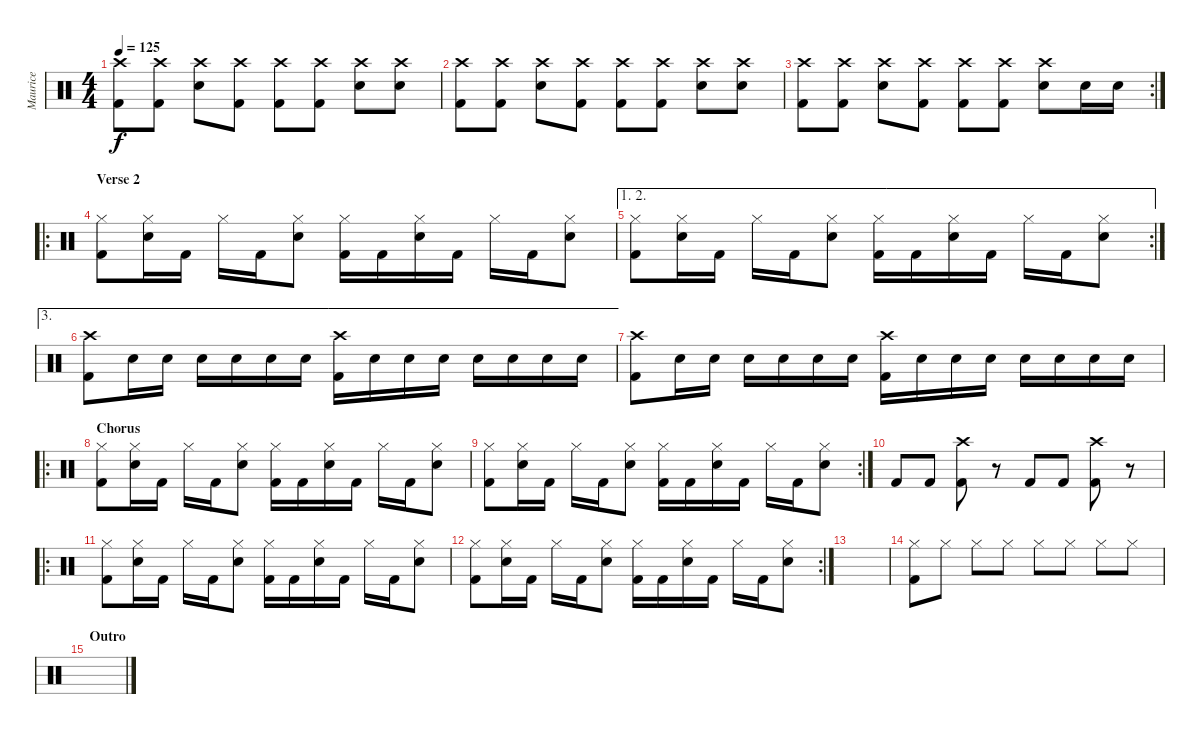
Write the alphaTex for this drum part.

\track ("Maurice" "Maurice") {instrument percussion}
\staff {score}
\articulation defaults
\ts (4 4)
\tempo 125
\clef neutral
\ks c
("Crash high (hit)" "Kick (hit) 2").8{dy f} ("Crash high (hit)" "Kick (hit) 2").8 ("Crash high (hit)" "Snare (hit) 2").8 ("Crash high (hit)" "Kick (hit) 2").8 ("Crash high (hit)" "Kick (hit) 2").8 ("Crash high (hit)" "Kick (hit) 2").8 ("Crash high (hit)" "Snare (hit) 2").8 ("Crash high (hit)" "Snare (hit) 2").8 |
("Crash high (hit)" "Kick (hit) 2").8 ("Crash high (hit)" "Kick (hit) 2").8 ("Crash high (hit)" "Snare (hit) 2").8 ("Crash high (hit)" "Kick (hit) 2").8 ("Crash high (hit)" "Kick (hit) 2").8 ("Crash high (hit)" "Kick (hit) 2").8 ("Crash high (hit)" "Snare (hit) 2").8 ("Crash high (hit)" "Snare (hit) 2").8 |
\rc 2
("Crash high (hit)" "Kick (hit) 2").8 ("Crash high (hit)" "Kick (hit) 2").8 ("Crash high (hit)" "Snare (hit) 2").8 ("Crash high (hit)" "Kick (hit) 2").8 ("Crash high (hit)" "Kick (hit) 2").8 ("Crash high (hit)" "Kick (hit) 2").8 ("Crash high (hit)" "Snare (hit) 2").8 "Snare (hit) 2".16 "Snare (hit) 2".16 |
\ro
\section ("" "Verse 2")
("Hi-Hat (closed)" "Kick (hit) 2").8 ("Hi-Hat (closed)" "Snare (hit) 2").16 "Kick (hit) 2".16 "Hi-Hat (closed)".16 "Kick (hit) 2".16 ("Hi-Hat (closed)" "Snare (hit) 2").8 ("Hi-Hat (closed)" "Kick (hit) 2").16 "Kick (hit) 2".16 ("Hi-Hat (closed)" "Snare (hit) 2").16 "Kick (hit) 2".16 "Hi-Hat (closed)".16 "Kick (hit) 2".16 ("Hi-Hat (closed)" "Snare (hit) 2").8 |
\ae (1 2)
\rc 2
("Hi-Hat (closed)" "Kick (hit) 2").8 ("Hi-Hat (closed)" "Snare (hit) 2").16 "Kick (hit) 2".16 "Hi-Hat (closed)".16 "Kick (hit) 2".16 ("Hi-Hat (closed)" "Snare (hit) 2").8 ("Hi-Hat (closed)" "Kick (hit) 2").16 "Kick (hit) 2".16 ("Hi-Hat (closed)" "Snare (hit) 2").16 "Kick (hit) 2".16 "Hi-Hat (closed)".16 "Kick (hit) 2".16 ("Hi-Hat (closed)" "Snare (hit) 2").8 |
\ae 3
("Crash high (hit)" "Kick (hit) 2").8 "Snare (hit) 2".16 "Snare (hit) 2".16 "Snare (hit) 2".16 "Snare (hit) 2".16 "Snare (hit) 2".16 "Snare (hit) 2".16 ("Crash high (hit)" "Kick (hit) 2").16 "Snare (hit) 2".16 "Snare (hit) 2".16 "Snare (hit) 2".16 "Snare (hit) 2".16 "Snare (hit) 2".16 "Snare (hit) 2".16 "Snare (hit) 2".16 |
("Crash high (hit)" "Kick (hit) 2").8 "Snare (hit) 2".16 "Snare (hit) 2".16 "Snare (hit) 2".16 "Snare (hit) 2".16 "Snare (hit) 2".16 "Snare (hit) 2".16 ("Crash high (hit)" "Kick (hit) 2").16 "Snare (hit) 2".16 "Snare (hit) 2".16 "Snare (hit) 2".16 "Snare (hit) 2".16 "Snare (hit) 2".16 "Snare (hit) 2".16 "Snare (hit) 2".16 |
\ro
\section ("" "Chorus")
("Hi-Hat (closed)" "Kick (hit) 2").8 ("Hi-Hat (closed)" "Snare (hit) 2").16 "Kick (hit) 2".16 "Hi-Hat (closed)".16 "Kick (hit) 2".16 ("Hi-Hat (closed)" "Snare (hit) 2").8 ("Hi-Hat (closed)" "Kick (hit) 2").16 "Kick (hit) 2".16 ("Hi-Hat (closed)" "Snare (hit) 2").16 "Kick (hit) 2".16 "Hi-Hat (closed)".16 "Kick (hit) 2".16 ("Hi-Hat (closed)" "Snare (hit) 2").8 |
\rc 2
("Hi-Hat (closed)" "Kick (hit) 2").8 ("Hi-Hat (closed)" "Snare (hit) 2").16 "Kick (hit) 2".16 "Hi-Hat (closed)".16 "Kick (hit) 2".16 ("Hi-Hat (closed)" "Snare (hit) 2").8 ("Hi-Hat (closed)" "Kick (hit) 2").16 "Kick (hit) 2".16 ("Hi-Hat (closed)" "Snare (hit) 2").16 "Kick (hit) 2".16 "Hi-Hat (closed)".16 "Kick (hit) 2".16 ("Hi-Hat (closed)" "Snare (hit) 2").8 |
"Kick (hit) 2".8 "Kick (hit) 2".8 ("Crash high (hit)" "Kick (hit) 2").8 r.8 "Kick (hit) 2".8 "Kick (hit) 2".8 ("Crash high (hit)" "Kick (hit) 2").8 r.8 |
\ro
("Hi-Hat (closed)" "Kick (hit) 2").8 ("Hi-Hat (closed)" "Snare (hit) 2").16 "Kick (hit) 2".16 "Hi-Hat (closed)".16 "Kick (hit) 2".16 ("Hi-Hat (closed)" "Snare (hit) 2").8 ("Hi-Hat (closed)" "Kick (hit) 2").16 "Kick (hit) 2".16 ("Hi-Hat (closed)" "Snare (hit) 2").16 "Kick (hit) 2".16 "Hi-Hat (closed)".16 "Kick (hit) 2".16 ("Hi-Hat (closed)" "Snare (hit) 2").8 |
\rc 2
("Hi-Hat (closed)" "Kick (hit) 2").8 ("Hi-Hat (closed)" "Snare (hit) 2").16 "Kick (hit) 2".16 "Hi-Hat (closed)".16 "Kick (hit) 2".16 ("Hi-Hat (closed)" "Snare (hit) 2").8 ("Hi-Hat (closed)" "Kick (hit) 2").16 "Kick (hit) 2".16 ("Hi-Hat (closed)" "Snare (hit) 2").16 "Kick (hit) 2".16 "Hi-Hat (closed)".16 "Kick (hit) 2".16 ("Hi-Hat (closed)" "Snare (hit) 2").8 |
|
("Hi-Hat (closed)" "Kick (hit) 2").8 "Hi-Hat (closed)".8 "Hi-Hat (closed)".8 "Hi-Hat (closed)".8 "Hi-Hat (closed)".8 "Hi-Hat (closed)".8 "Hi-Hat (closed)".8 "Hi-Hat (closed)".8 |
\section ("" "Outro")
